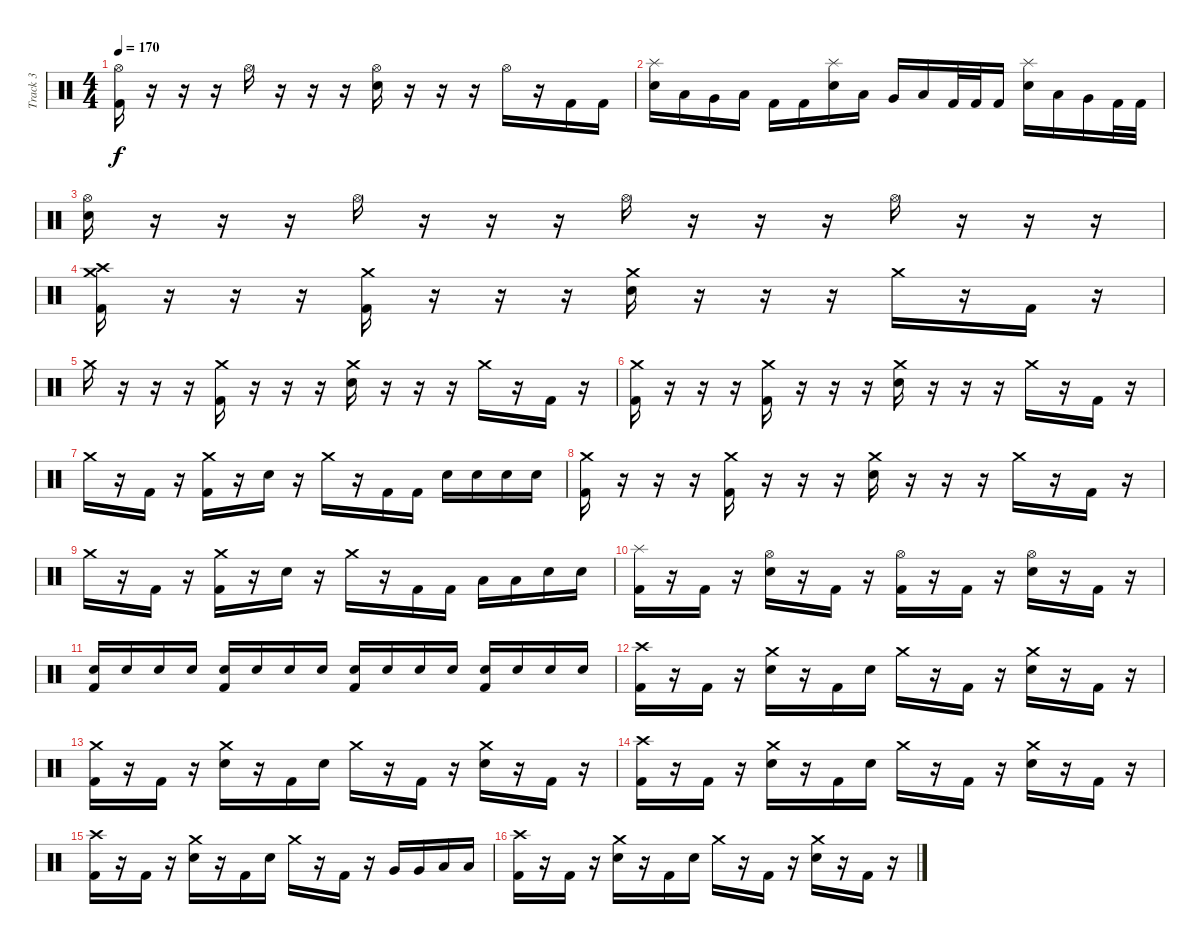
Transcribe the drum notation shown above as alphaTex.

\track ("Track 3" "Track 3") {instrument percussion}
\staff {score}
\articulation defaults
\ts (4 4)
\tempo 170
\clef neutral
\ks c
("Kick (hit) 2" "Hi-Hat (open)").16{dy f} r.16 r.16 r.16 "Hi-Hat (open)".16 r.16 r.16 r.16 ("Hi-Hat (open)" "Electric Snare (hit)").16 r.16 r.16 r.16 "Hi-Hat (open)".16 r.16 "Kick (hit) 2".16 "Kick (hit) 2".16 |
("Electric Snare (hit)" "Splash (hit)").16 "Low Tom (hit)".16 "Very Low Tom (hit)".16 "Low Tom (hit)".16 "Kick (hit) 2".16 "Kick (hit) 2".16 ("Electric Snare (hit)" "Splash (hit)").16 "Low Tom (hit)".16 "Very Low Tom (hit)".16 "Low Tom (hit)".16 "Kick (hit) 2".32 "Kick (hit) 2".32 "Kick (hit) 2".16 ("Electric Snare (hit)" "Splash (hit)").16 "Low Tom (hit)".16 "Very Low Tom (hit)".16 "Kick (hit) 2".32 "Kick (hit) 2".32 |
("Electric Snare (hit)" "Hi-Hat (open)").16 r.16 r.16 r.16 "Hi-Hat (open)".16 r.16 r.16 r.16 "Hi-Hat (open)".16 r.16 r.16 r.16 "Hi-Hat (open)".16 r.16 r.16 r.16 |
("Kick (hit) 2" "Crash medium (hit)" "Crash high (hit)").16 r.16 r.16 r.16 ("Crash medium (hit)" "Kick (hit) 2").16 r.16 r.16 r.16 ("Crash medium (hit)" "Electric Snare (hit)").16 r.16 r.16 r.16 "Crash medium (hit)".16 r.16 "Kick (hit) 2".16 r.16 |
"Crash medium (hit)".16 r.16 r.16 r.16 ("Crash medium (hit)" "Kick (hit) 2").16 r.16 r.16 r.16 ("Crash medium (hit)" "Electric Snare (hit)").16 r.16 r.16 r.16 "Crash medium (hit)".16 r.16 "Kick (hit) 2".16 r.16 |
("Kick (hit) 2" "Crash medium (hit)").16 r.16 r.16 r.16 ("Crash medium (hit)" "Kick (hit) 2").16 r.16 r.16 r.16 ("Crash medium (hit)" "Electric Snare (hit)").16 r.16 r.16 r.16 "Crash medium (hit)".16 r.16 "Kick (hit) 2".16 r.16 |
"Crash medium (hit)".16 r.16 "Kick (hit) 2".16 r.16 ("Crash medium (hit)" "Kick (hit) 2").16 r.16 "Electric Snare (hit)".16 r.16 "Crash medium (hit)".16 r.16 "Kick (hit) 2".16 "Kick (hit) 2".16 "Electric Snare (hit)".16 "Electric Snare (hit)".16 "Electric Snare (hit)".16 "Electric Snare (hit)".16 |
("Kick (hit) 2" "Crash medium (hit)").16 r.16 r.16 r.16 ("Crash medium (hit)" "Kick (hit) 2").16 r.16 r.16 r.16 ("Crash medium (hit)" "Electric Snare (hit)").16 r.16 r.16 r.16 "Crash medium (hit)".16 r.16 "Kick (hit) 2".16 r.16 |
"Crash medium (hit)".16 r.16 "Kick (hit) 2".16 r.16 ("Crash medium (hit)" "Kick (hit) 2").16 r.16 "Electric Snare (hit)".16 r.16 "Crash medium (hit)".16 r.16 "Kick (hit) 2".16 "Kick (hit) 2".16 "Low Tom (hit)".16 "Low Tom (hit)".16 "Electric Snare (hit)".16 "Electric Snare (hit)".16 |
("Kick (hit) 2" "Splash (hit)").16 r.16 "Kick (hit) 2".16 r.16 ("Hi-Hat (open)" "Electric Snare (hit)").16 r.16 "Kick (hit) 2".16 r.16 ("Hi-Hat (open)" "Kick (hit) 2").16 r.16 "Kick (hit) 2".16 r.16 ("Hi-Hat (open)" "Electric Snare (hit)").16 r.16 "Kick (hit) 2".16 r.16 |
("Kick (hit) 2" "Electric Snare (hit)").16 "Electric Snare (hit)".16 "Electric Snare (hit)".16 "Electric Snare (hit)".16 ("Electric Snare (hit)" "Kick (hit) 2").16 "Electric Snare (hit)".16 "Electric Snare (hit)".16 "Electric Snare (hit)".16 ("Kick (hit) 2" "Electric Snare (hit)").16 "Electric Snare (hit)".16 "Electric Snare (hit)".16 "Electric Snare (hit)".16 ("Electric Snare (hit)" "Kick (hit) 2").16 "Electric Snare (hit)".16 "Electric Snare (hit)".16 "Electric Snare (hit)".16 |
("Kick (hit) 2" "Crash high (hit)").16 r.16 "Kick (hit) 2".16 r.16 ("Crash medium (hit)" "Electric Snare (hit)").16 r.16 "Kick (hit) 2".16 "Electric Snare (hit)".16 "Crash medium (hit)".16 r.16 "Kick (hit) 2".16 r.16 ("Crash medium (hit)" "Snare (hit) 2").16 r.16 "Kick (hit) 2".16 r.16 |
("Kick (hit) 2" "Crash medium (hit)").16 r.16 "Kick (hit) 2".16 r.16 ("Crash medium (hit)" "Electric Snare (hit)").16 r.16 "Kick (hit) 2".16 "Electric Snare (hit)".16 "Crash medium (hit)".16 r.16 "Kick (hit) 2".16 r.16 ("Crash medium (hit)" "Snare (hit) 2").16 r.16 "Kick (hit) 2".16 r.16 |
("Kick (hit) 2" "Crash high (hit)").16 r.16 "Kick (hit) 2".16 r.16 ("Crash medium (hit)" "Electric Snare (hit)").16 r.16 "Kick (hit) 2".16 "Electric Snare (hit)".16 "Crash medium (hit)".16 r.16 "Kick (hit) 2".16 r.16 ("Crash medium (hit)" "Snare (hit) 2").16 r.16 "Kick (hit) 2".16 r.16 |
("Kick (hit) 2" "Crash high (hit)").16 r.16 "Kick (hit) 2".16 r.16 ("Crash medium (hit)" "Electric Snare (hit)").16 r.16 "Kick (hit) 2".16 "Electric Snare (hit)".16 "Crash medium (hit)".16 r.16 "Kick (hit) 2".16 r.16 "Very Low Tom (hit)".16 "Very Low Tom (hit)".16 "Low Floor Tom (hit)".16 "Low Floor Tom (hit)".16 |
("Kick (hit) 2" "Crash high (hit)").16 r.16 "Kick (hit) 2".16 r.16 ("Crash medium (hit)" "Electric Snare (hit)").16 r.16 "Kick (hit) 2".16 "Electric Snare (hit)".16 "Crash medium (hit)".16 r.16 "Kick (hit) 2".16 r.16 ("Crash medium (hit)" "Snare (hit) 2").16 r.16 "Kick (hit) 2".16 r.16
